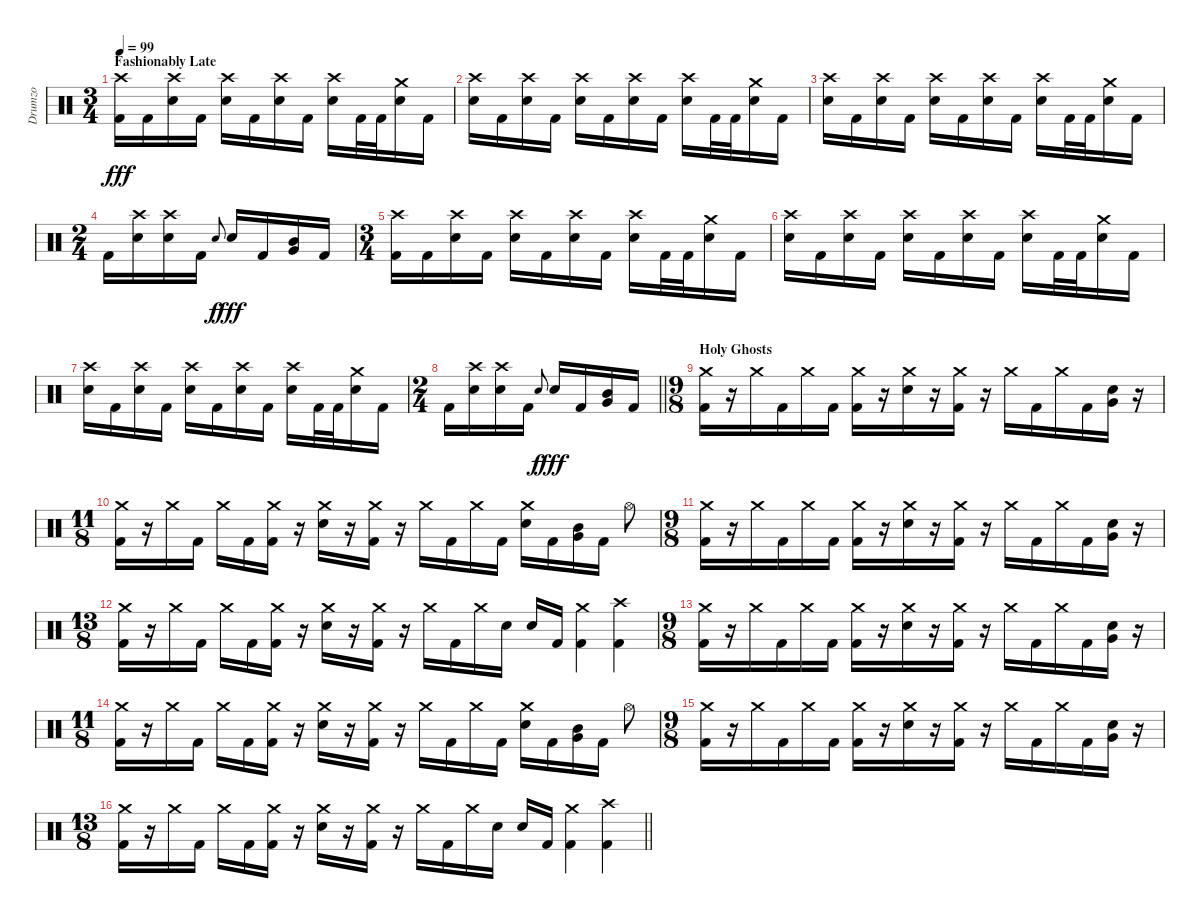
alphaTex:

\track ("Drumzo" "Drumzo") {instrument percussion}
\staff {score}
\articulation defaults
\ts (3 4)
\section ("" "Fashionably Late")
\tempo 99
\clef neutral
\ks c
("Crash high (hit)" "Kick (hit) 2").16{dy fff} "Kick (hit) 2".16 ("Crash high (hit)" "Snare (hit) 2").16 "Kick (hit) 2".16 ("Crash high (hit)" "Snare (hit) 2").16 "Kick (hit) 2".16 ("Crash high (hit)" "Snare (hit) 2").16 "Kick (hit) 2".16 ("Crash high (hit)" "Snare (hit) 2").16 "Kick (hit) 2".32 "Kick (hit) 2".32 ("Crash medium (hit)" "Snare (hit) 2").16 "Kick (hit) 2".16 |
("Crash high (hit)" "Snare (hit) 2").16 "Kick (hit) 2".16 ("Crash high (hit)" "Snare (hit) 2").16 "Kick (hit) 2".16 ("Crash high (hit)" "Snare (hit) 2").16 "Kick (hit) 2".16 ("Crash high (hit)" "Snare (hit) 2").16 "Kick (hit) 2".16 ("Crash high (hit)" "Snare (hit) 2").16 "Kick (hit) 2".32 "Kick (hit) 2".32 ("Crash medium (hit)" "Snare (hit) 2").16 "Kick (hit) 2".16 |
("Crash high (hit)" "Snare (hit) 2").16 "Kick (hit) 2".16 ("Crash high (hit)" "Snare (hit) 2").16 "Kick (hit) 2".16 ("Crash high (hit)" "Snare (hit) 2").16 "Kick (hit) 2".16 ("Crash high (hit)" "Snare (hit) 2").16 "Kick (hit) 2".16 ("Crash high (hit)" "Snare (hit) 2").16 "Kick (hit) 2".32 "Kick (hit) 2".32 ("Crash medium (hit)" "Snare (hit) 2").16 "Kick (hit) 2".16 |
\ts (2 4)
"Kick (hit) 2".16 ("Crash high (hit)" "Snare (hit) 2").16 ("Crash high (hit)" "Snare (hit) 2").16 "Kick (hit) 2".16 "Snare (hit) 2".8{gr onbeat dy f} "Snare (hit) 2".16{dy fff} "Kick (hit) 2".16 ("Mid Tom (hit)" "Very Low Tom (hit)").16 "Kick (hit) 2".16 |
\ts (3 4)
("Crash high (hit)" "Kick (hit) 2").16 "Kick (hit) 2".16 ("Crash high (hit)" "Snare (hit) 2").16 "Kick (hit) 2".16 ("Crash high (hit)" "Snare (hit) 2").16 "Kick (hit) 2".16 ("Crash high (hit)" "Snare (hit) 2").16 "Kick (hit) 2".16 ("Crash high (hit)" "Snare (hit) 2").16 "Kick (hit) 2".32 "Kick (hit) 2".32 ("Crash medium (hit)" "Snare (hit) 2").16 "Kick (hit) 2".16 |
("Crash high (hit)" "Snare (hit) 2").16 "Kick (hit) 2".16 ("Crash high (hit)" "Snare (hit) 2").16 "Kick (hit) 2".16 ("Crash high (hit)" "Snare (hit) 2").16 "Kick (hit) 2".16 ("Crash high (hit)" "Snare (hit) 2").16 "Kick (hit) 2".16 ("Crash high (hit)" "Snare (hit) 2").16 "Kick (hit) 2".32 "Kick (hit) 2".32 ("Crash medium (hit)" "Snare (hit) 2").16 "Kick (hit) 2".16 |
("Crash high (hit)" "Snare (hit) 2").16 "Kick (hit) 2".16 ("Crash high (hit)" "Snare (hit) 2").16 "Kick (hit) 2".16 ("Crash high (hit)" "Snare (hit) 2").16 "Kick (hit) 2".16 ("Crash high (hit)" "Snare (hit) 2").16 "Kick (hit) 2".16 ("Crash high (hit)" "Snare (hit) 2").16 "Kick (hit) 2".32 "Kick (hit) 2".32 ("Crash medium (hit)" "Snare (hit) 2").16 "Kick (hit) 2".16 |
\ts (2 4)
\barLineRight lightlight "Kick (hit) 2".16
("Crash high (hit)" "Snare (hit) 2").16 ("Crash high (hit)" "Snare (hit) 2").16 "Kick (hit) 2".16 "Snare (hit) 2".8{gr onbeat dy f} "Snare (hit) 2".16{dy fff} "Kick (hit) 2".16 ("Mid Tom (hit)" "Very Low Tom (hit)").16 "Kick (hit) 2".16 |
\ts (9 8)
\section ("" "Holy Ghosts")
("Crash medium (hit)" "Kick (hit) 2").16 r.16 "Crash medium (hit)".16 "Kick (hit) 2".16 "Crash medium (hit)".16 "Kick (hit) 2".16 ("Crash medium (hit)" "Kick (hit) 2").16 r.16 ("Crash medium (hit)" "Snare (hit) 2").16 r.16 ("Crash medium (hit)" "Kick (hit) 2").16 r.16 "Crash medium (hit)".16 "Kick (hit) 2".16 "Crash medium (hit)".16 "Kick (hit) 2".16 ("Very Low Tom (hit)" "Snare (hit) 2").16 r.16 |
\ts (11 8)
("Crash medium (hit)" "Kick (hit) 2").16 r.16 "Crash medium (hit)".16 "Kick (hit) 2".16 "Crash medium (hit)".16 "Kick (hit) 2".16 ("Crash medium (hit)" "Kick (hit) 2").16 r.16 ("Crash medium (hit)" "Snare (hit) 2").16 r.16 ("Crash medium (hit)" "Kick (hit) 2").16 r.16 "Crash medium (hit)".16 "Kick (hit) 2".16 "Crash medium (hit)".16 "Kick (hit) 2".16 ("Crash medium (hit)" "Snare (hit) 2").16 "Kick (hit) 2".16 ("Mid Tom (hit)" "Very Low Tom (hit)").16 "Kick (hit) 2".16 "Hi-Hat (open)".8 |
\ts (9 8)
("Crash medium (hit)" "Kick (hit) 2").16 r.16 "Crash medium (hit)".16 "Kick (hit) 2".16 "Crash medium (hit)".16 "Kick (hit) 2".16 ("Crash medium (hit)" "Kick (hit) 2").16 r.16 ("Crash medium (hit)" "Snare (hit) 2").16 r.16 ("Crash medium (hit)" "Kick (hit) 2").16 r.16 "Crash medium (hit)".16 "Kick (hit) 2".16 "Crash medium (hit)".16 "Kick (hit) 2".16 ("Very Low Tom (hit)" "Snare (hit) 2").16 r.16 |
\ts (13 8)
("Crash medium (hit)" "Kick (hit) 2").16 r.16 "Crash medium (hit)".16 "Kick (hit) 2".16 "Crash medium (hit)".16 "Kick (hit) 2".16 ("Crash medium (hit)" "Kick (hit) 2").16 r.16 ("Crash medium (hit)" "Snare (hit) 2").16 r.16 ("Crash medium (hit)" "Kick (hit) 2").16 r.16 "Crash medium (hit)".16 "Kick (hit) 2".16 "Crash medium (hit)".16 "Snare (hit) 2".16 "Snare (hit) 2".16 "Kick (hit) 2".16 ("Crash medium (hit)" "Kick (hit) 2").4 ("Crash high (hit)" "Kick (hit) 2").4 |
\ts (9 8)
("Crash medium (hit)" "Kick (hit) 2").16 r.16 "Crash medium (hit)".16 "Kick (hit) 2".16 "Crash medium (hit)".16 "Kick (hit) 2".16 ("Crash medium (hit)" "Kick (hit) 2").16 r.16 ("Crash medium (hit)" "Snare (hit) 2").16 r.16 ("Crash medium (hit)" "Kick (hit) 2").16 r.16 "Crash medium (hit)".16 "Kick (hit) 2".16 "Crash medium (hit)".16 "Kick (hit) 2".16 ("Very Low Tom (hit)" "Snare (hit) 2").16 r.16 |
\ts (11 8)
("Crash medium (hit)" "Kick (hit) 2").16 r.16 "Crash medium (hit)".16 "Kick (hit) 2".16 "Crash medium (hit)".16 "Kick (hit) 2".16 ("Crash medium (hit)" "Kick (hit) 2").16 r.16 ("Crash medium (hit)" "Snare (hit) 2").16 r.16 ("Crash medium (hit)" "Kick (hit) 2").16 r.16 "Crash medium (hit)".16 "Kick (hit) 2".16 "Crash medium (hit)".16 "Kick (hit) 2".16 ("Crash medium (hit)" "Snare (hit) 2").16 "Kick (hit) 2".16 ("Mid Tom (hit)" "Very Low Tom (hit)").16 "Kick (hit) 2".16 "Hi-Hat (open)".8 |
\ts (9 8)
("Crash medium (hit)" "Kick (hit) 2").16 r.16 "Crash medium (hit)".16 "Kick (hit) 2".16 "Crash medium (hit)".16 "Kick (hit) 2".16 ("Crash medium (hit)" "Kick (hit) 2").16 r.16 ("Crash medium (hit)" "Snare (hit) 2").16 r.16 ("Crash medium (hit)" "Kick (hit) 2").16 r.16 "Crash medium (hit)".16 "Kick (hit) 2".16 "Crash medium (hit)".16 "Kick (hit) 2".16 ("Very Low Tom (hit)" "Snare (hit) 2").16 r.16 |
\ts (13 8)
\barLineRight lightlight
("Crash medium (hit)" "Kick (hit) 2").16 r.16 "Crash medium (hit)".16 "Kick (hit) 2".16 "Crash medium (hit)".16 "Kick (hit) 2".16 ("Crash medium (hit)" "Kick (hit) 2").16 r.16 ("Crash medium (hit)" "Snare (hit) 2").16 r.16 ("Crash medium (hit)" "Kick (hit) 2").16 r.16 "Crash medium (hit)".16 "Kick (hit) 2".16 "Crash medium (hit)".16 "Snare (hit) 2".16 "Snare (hit) 2".16 "Kick (hit) 2".16 ("Crash medium (hit)" "Kick (hit) 2").4 ("Crash high (hit)" "Kick (hit) 2").4
